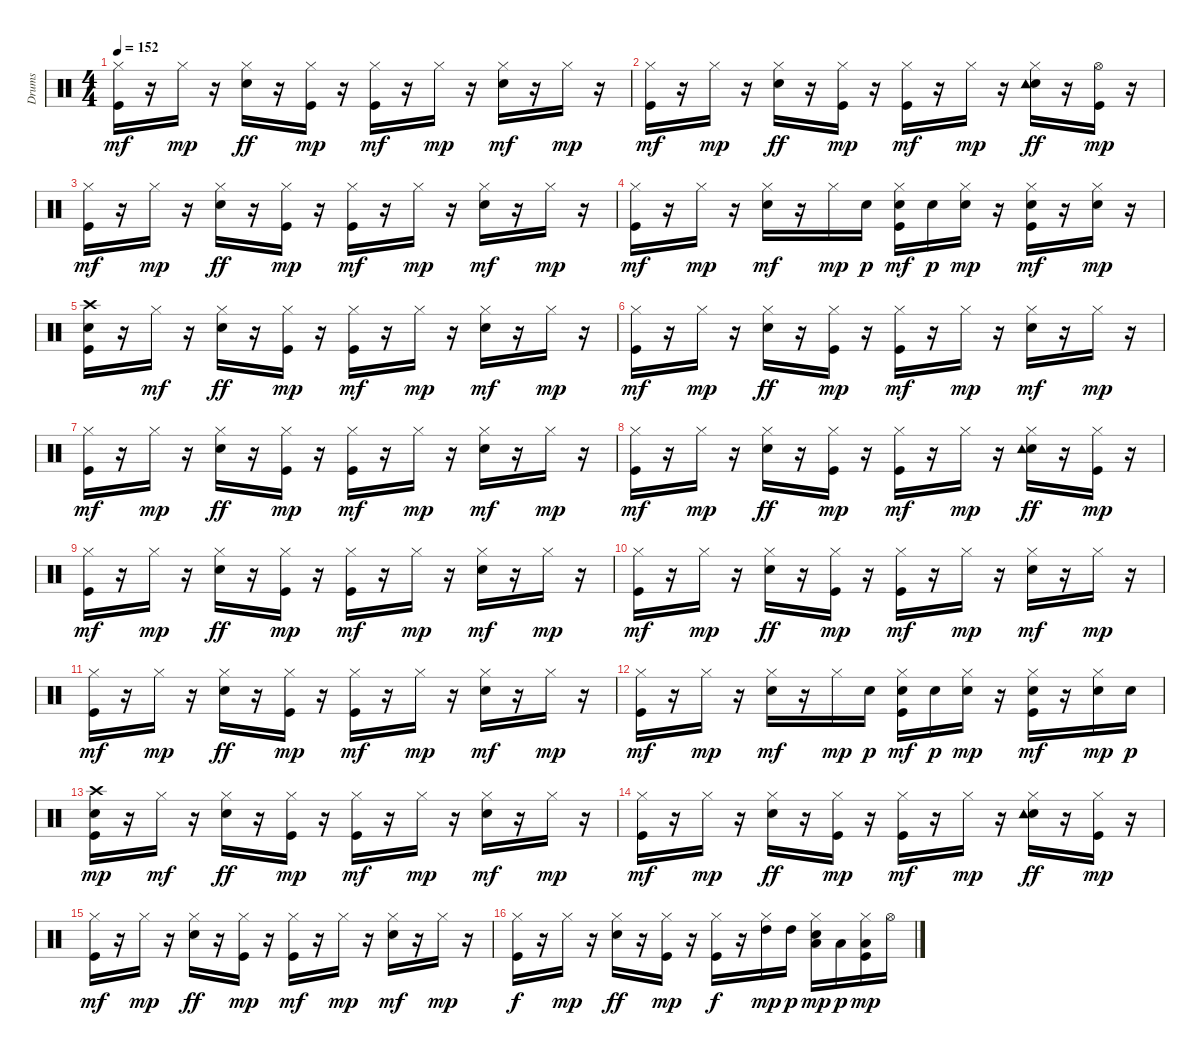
\track ("Drums   " "Drums   ") {instrument percussion}
\staff {score}
\articulation defaults
\ts (4 4)
\tempo 152
\clef neutral
\ks c
("Kick (hit)" "Hi-Hat (closed)").16{dy mf} r.16 "Hi-Hat (closed)".16{dy mp} r.16 ("Snare (hit) 2" "Hi-Hat (closed)").16{dy ff} r.16 ("Kick (hit)" "Hi-Hat (closed)").16{dy mp} r.16 ("Kick (hit)" "Hi-Hat (closed)").16{dy mf} r.16 "Hi-Hat (closed)".16{dy mp} r.16 ("Snare (hit) 2" "Hi-Hat (closed)").16{dy mf} r.16 "Hi-Hat (closed)".16{dy mp} r.16 |
("Kick (hit)" "Hi-Hat (closed)").16{dy mf} r.16 "Hi-Hat (closed)".16{dy mp} r.16 ("Snare (hit) 2" "Hi-Hat (closed)").16{dy ff} r.16 ("Kick (hit)" "Hi-Hat (closed)").16{dy mp} r.16 ("Kick (hit)" "Hi-Hat (closed)").16{dy mf} r.16 "Hi-Hat (closed)".16{dy mp} r.16 ("Snare (hit) 2" "Hi-Hat (closed)" "Tambourine (hit)").16{dy ff} r.16 ("Kick (hit)" "Hi-Hat (open)").16{dy mp} r.16 |
("Kick (hit)" "Hi-Hat (closed)").16{dy mf} r.16 "Hi-Hat (closed)".16{dy mp} r.16 ("Snare (hit) 2" "Hi-Hat (closed)").16{dy ff} r.16 ("Kick (hit)" "Hi-Hat (closed)").16{dy mp} r.16 ("Kick (hit)" "Hi-Hat (closed)").16{dy mf} r.16 "Hi-Hat (closed)".16{dy mp} r.16 ("Snare (hit) 2" "Hi-Hat (closed)").16{dy mf} r.16 "Hi-Hat (closed)".16{dy mp} r.16 |
("Kick (hit)" "Hi-Hat (closed)").16{dy mf} r.16 "Hi-Hat (closed)".16{dy mp} r.16 ("Snare (hit) 2" "Hi-Hat (closed)").16{dy mf} r.16 "Hi-Hat (closed)".16{dy mp} "Snare (hit) 2".16{dy p} ("Kick (hit)" "Snare (hit) 2" "Hi-Hat (closed)").16{dy mf} "Snare (hit) 2".16{dy p} ("Snare (hit) 2" "Hi-Hat (closed)").16{dy mp} r.16 ("Kick (hit)" "Snare (hit) 2" "Hi-Hat (closed)").16{dy mf} r.16 ("Snare (hit) 2" "Hi-Hat (closed)").16{dy mp} r.16 |
("Kick (hit)" "Snare (hit) 2" "Crash high (hit)").16 r.16 "Hi-Hat (closed)".16{dy mf} r.16 ("Snare (hit) 2" "Hi-Hat (closed)").16{dy ff} r.16 ("Kick (hit)" "Hi-Hat (closed)").16{dy mp} r.16 ("Kick (hit)" "Hi-Hat (closed)").16{dy mf} r.16 "Hi-Hat (closed)".16{dy mp} r.16 ("Snare (hit) 2" "Hi-Hat (closed)").16{dy mf} r.16 "Hi-Hat (closed)".16{dy mp} r.16 |
("Kick (hit)" "Hi-Hat (closed)").16{dy mf} r.16 "Hi-Hat (closed)".16{dy mp} r.16 ("Snare (hit) 2" "Hi-Hat (closed)").16{dy ff} r.16 ("Kick (hit)" "Hi-Hat (closed)").16{dy mp} r.16 ("Kick (hit)" "Hi-Hat (closed)").16{dy mf} r.16 "Hi-Hat (closed)".16{dy mp} r.16 ("Snare (hit) 2" "Hi-Hat (closed)").16{dy mf} r.16 "Hi-Hat (closed)".16{dy mp} r.16 |
("Kick (hit)" "Hi-Hat (closed)").16{dy mf} r.16 "Hi-Hat (closed)".16{dy mp} r.16 ("Snare (hit) 2" "Hi-Hat (closed)").16{dy ff} r.16 ("Kick (hit)" "Hi-Hat (closed)").16{dy mp} r.16 ("Kick (hit)" "Hi-Hat (closed)").16{dy mf} r.16 "Hi-Hat (closed)".16{dy mp} r.16 ("Snare (hit) 2" "Hi-Hat (closed)").16{dy mf} r.16 "Hi-Hat (closed)".16{dy mp} r.16 |
("Kick (hit)" "Hi-Hat (closed)").16{dy mf} r.16 "Hi-Hat (closed)".16{dy mp} r.16 ("Snare (hit) 2" "Hi-Hat (closed)").16{dy ff} r.16 ("Kick (hit)" "Hi-Hat (closed)").16{dy mp} r.16 ("Kick (hit)" "Hi-Hat (closed)").16{dy mf} r.16 "Hi-Hat (closed)".16{dy mp} r.16 ("Snare (hit) 2" "Hi-Hat (closed)" "Tambourine (hit)").16{dy ff} r.16 ("Kick (hit)" "Hi-Hat (closed)").16{dy mp} r.16 |
("Kick (hit)" "Hi-Hat (closed)").16{dy mf} r.16 "Hi-Hat (closed)".16{dy mp} r.16 ("Snare (hit) 2" "Hi-Hat (closed)").16{dy ff} r.16 ("Kick (hit)" "Hi-Hat (closed)").16{dy mp} r.16 ("Kick (hit)" "Hi-Hat (closed)").16{dy mf} r.16 "Hi-Hat (closed)".16{dy mp} r.16 ("Snare (hit) 2" "Hi-Hat (closed)").16{dy mf} r.16 "Hi-Hat (closed)".16{dy mp} r.16 |
("Kick (hit)" "Hi-Hat (closed)").16{dy mf} r.16 "Hi-Hat (closed)".16{dy mp} r.16 ("Snare (hit) 2" "Hi-Hat (closed)").16{dy ff} r.16 ("Kick (hit)" "Hi-Hat (closed)").16{dy mp} r.16 ("Kick (hit)" "Hi-Hat (closed)").16{dy mf} r.16 "Hi-Hat (closed)".16{dy mp} r.16 ("Snare (hit) 2" "Hi-Hat (closed)").16{dy mf} r.16 "Hi-Hat (closed)".16{dy mp} r.16 |
("Kick (hit)" "Hi-Hat (closed)").16{dy mf} r.16 "Hi-Hat (closed)".16{dy mp} r.16 ("Snare (hit) 2" "Hi-Hat (closed)").16{dy ff} r.16 ("Kick (hit)" "Hi-Hat (closed)").16{dy mp} r.16 ("Kick (hit)" "Hi-Hat (closed)").16{dy mf} r.16 "Hi-Hat (closed)".16{dy mp} r.16 ("Snare (hit) 2" "Hi-Hat (closed)").16{dy mf} r.16 "Hi-Hat (closed)".16{dy mp} r.16 |
("Kick (hit)" "Hi-Hat (closed)").16{dy mf} r.16 "Hi-Hat (closed)".16{dy mp} r.16 ("Snare (hit) 2" "Hi-Hat (closed)").16{dy mf} r.16 "Hi-Hat (closed)".16{dy mp} "Snare (hit) 2".16{dy p} ("Kick (hit)" "Snare (hit) 2" "Hi-Hat (closed)").16{dy mf} "Snare (hit) 2".16{dy p} ("Snare (hit) 2" "Hi-Hat (closed)").16{dy mp} r.16 ("Kick (hit)" "Snare (hit) 2" "Hi-Hat (closed)").16{dy mf} r.16 ("Snare (hit) 2" "Hi-Hat (closed)").16{dy mp} "Snare (hit) 2".16{dy p} |
("Kick (hit)" "Snare (hit) 2" "Crash high (hit)").16{dy mp} r.16 "Hi-Hat (closed)".16{dy mf} r.16 ("Snare (hit) 2" "Hi-Hat (closed)").16{dy ff} r.16 ("Kick (hit)" "Hi-Hat (closed)").16{dy mp} r.16 ("Kick (hit)" "Hi-Hat (closed)").16{dy mf} r.16 "Hi-Hat (closed)".16{dy mp} r.16 ("Snare (hit) 2" "Hi-Hat (closed)").16{dy mf} r.16 "Hi-Hat (closed)".16{dy mp} r.16 |
("Kick (hit)" "Hi-Hat (closed)").16{dy mf} r.16 "Hi-Hat (closed)".16{dy mp} r.16 ("Snare (hit) 2" "Hi-Hat (closed)").16{dy ff} r.16 ("Kick (hit)" "Hi-Hat (closed)").16{dy mp} r.16 ("Kick (hit)" "Hi-Hat (closed)").16{dy mf} r.16 "Hi-Hat (closed)".16{dy mp} r.16 ("Snare (hit) 2" "Hi-Hat (closed)" "Tambourine (hit)").16{dy ff} r.16 ("Kick (hit)" "Hi-Hat (closed)").16{dy mp} r.16 |
("Kick (hit)" "Hi-Hat (closed)").16{dy mf} r.16 "Hi-Hat (closed)".16{dy mp} r.16 ("Snare (hit) 2" "Hi-Hat (closed)").16{dy ff} r.16 ("Kick (hit)" "Hi-Hat (closed)").16{dy mp} r.16 ("Kick (hit)" "Hi-Hat (closed)").16{dy mf} r.16 "Hi-Hat (closed)".16{dy mp} r.16 ("Snare (hit) 2" "Hi-Hat (closed)").16{dy mf} r.16 "Hi-Hat (closed)".16{dy mp} r.16 |
("Kick (hit)" "Hi-Hat (closed)").16{dy f} r.16 "Hi-Hat (closed)".16{dy mp} r.16 ("Snare (hit) 2" "Hi-Hat (closed)").16{dy ff} r.16 ("Kick (hit)" "Hi-Hat (closed)").16{dy mp} r.16 ("Kick (hit)" "Hi-Hat (closed)").16{dy f} r.16 ("Hi-Hat (closed)" "High Tom (hit)").16{dy mp} "High Tom (hit)".16{dy p} ("Snare (hit) 2" "Hi-Hat (closed)" "Low Tom (hit)").16{dy mp} "Low Tom (hit)".16{dy p} ("Kick (hit)" "Hi-Hat (closed)" "Low Floor Tom (hit)").16{dy mp} "Hi-Hat (open)".16
